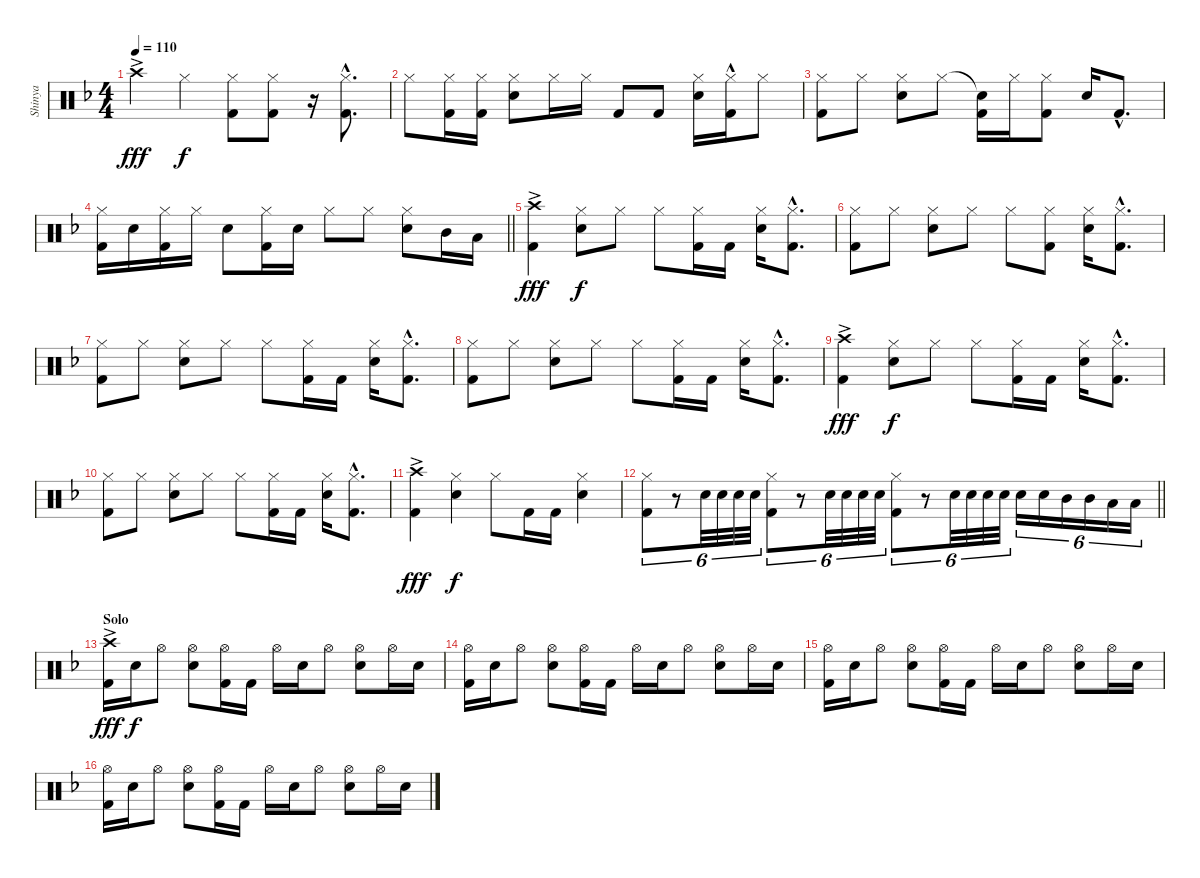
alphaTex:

\track ("Shinya" "Shinya") {instrument percussion}
\staff {score}
\articulation defaults
\ts (4 4)
\tempo 110
\clef neutral
\ks f "Crash high (hit)"{ac}.4{dy fff} "Hi-Hat (closed)".4{dy f}
("Hi-Hat (closed)" "Kick (hit) 2").8 ("Hi-Hat (closed)" "Kick (hit) 2").8 r.16 ("Hi-Hat (closed)"{hac} "Kick (hit) 2"{hac}).8{d} |
"Hi-Hat (closed)".8 ("Hi-Hat (closed)" "Kick (hit) 2").16 ("Hi-Hat (closed)" "Kick (hit) 2").16 ("Hi-Hat (closed)" "Snare (hit) 2").8 "Hi-Hat (closed)".16 "Hi-Hat (closed)".16 "Kick (hit) 2".8 "Kick (hit) 2".8 ("Hi-Hat (closed)" "Snare (hit) 2").16 ("Hi-Hat (closed)" "Kick (hit) 2"{hac}).16 "Hi-Hat (closed)".8 |
("Hi-Hat (closed)" "Kick (hit) 2").8 "Hi-Hat (closed)".8 ("Hi-Hat (closed)" "Snare (hit) 2").8 "Hi-Hat (closed)".8 ("Snare (hit)"{t} "Kick (hit) 2").16 "Hi-Hat (closed)".16 ("Hi-Hat (closed)" "Kick (hit) 2").8 "Snare (hit) 2".16 "Kick (hit) 2"{hac}.8{d} |
\barLineRight lightlight
("Hi-Hat (closed)" "Kick (hit) 2").16 "Snare (hit) 2".16 ("Hi-Hat (closed)" "Kick (hit) 2").16 "Hi-Hat (closed)".16 "Snare (hit) 2".8 ("Hi-Hat (closed)" "Kick (hit) 2").16 "Snare (hit) 2".16 "Hi-Hat (closed)".8 "Hi-Hat (closed)".8 ("Hi-Hat (closed)" "Snare (hit) 2").8 "Mid Tom (hit)".16 "Low Tom (hit)".16 |
("Crash high (hit)"{ac} "Kick (hit) 2").4{dy fff} ("Hi-Hat (closed)" "Snare (hit) 2").8{dy f} "Hi-Hat (closed)".8 "Hi-Hat (closed)".8 ("Hi-Hat (closed)" "Kick (hit) 2").16 "Kick (hit) 2".16 ("Hi-Hat (closed)" "Snare (hit) 2").16 ("Hi-Hat (closed)"{hac} "Kick (hit) 2"{hac}).8{d} |
("Hi-Hat (closed)" "Kick (hit) 2").8 "Hi-Hat (closed)".8 ("Hi-Hat (closed)" "Snare (hit) 2").8 "Hi-Hat (closed)".8 "Hi-Hat (closed)".8 ("Hi-Hat (closed)" "Kick (hit) 2").8 ("Hi-Hat (closed)" "Snare (hit) 2").16 ("Hi-Hat (closed)"{hac} "Kick (hit) 2"{hac}).8{d} |
("Hi-Hat (closed)" "Kick (hit) 2").8 "Hi-Hat (closed)".8 ("Hi-Hat (closed)" "Snare (hit) 2").8 "Hi-Hat (closed)".8 "Hi-Hat (closed)".8 ("Hi-Hat (closed)" "Kick (hit) 2").16 "Kick (hit) 2".16 ("Hi-Hat (closed)" "Snare (hit) 2").16 ("Hi-Hat (closed)"{hac} "Kick (hit) 2"{hac}).8{d} |
("Hi-Hat (closed)" "Kick (hit) 2").8 "Hi-Hat (closed)".8 ("Hi-Hat (closed)" "Snare (hit) 2").8 "Hi-Hat (closed)".8 "Hi-Hat (closed)".8 ("Hi-Hat (closed)" "Kick (hit) 2").16 "Kick (hit) 2".16 ("Hi-Hat (closed)" "Snare (hit) 2").16 ("Hi-Hat (closed)"{hac} "Kick (hit) 2"{hac}).8{d} |
("Crash high (hit)"{ac} "Kick (hit) 2").4{dy fff} ("Hi-Hat (closed)" "Snare (hit) 2").8{dy f} "Hi-Hat (closed)".8 "Hi-Hat (closed)".8 ("Hi-Hat (closed)" "Kick (hit) 2").16 "Kick (hit) 2".16 ("Hi-Hat (closed)" "Snare (hit) 2").16 ("Hi-Hat (closed)"{hac} "Kick (hit) 2"{hac}).8{d} |
("Hi-Hat (closed)" "Kick (hit) 2").8 "Hi-Hat (closed)".8 ("Hi-Hat (closed)" "Snare (hit) 2").8 "Hi-Hat (closed)".8 "Hi-Hat (closed)".8 ("Hi-Hat (closed)" "Kick (hit) 2").16 "Kick (hit) 2".16 ("Hi-Hat (closed)" "Snare (hit) 2").16 ("Hi-Hat (closed)"{hac} "Kick (hit) 2"{hac}).8{d} |
("Crash high (hit)"{ac} "Kick (hit) 2").4{dy fff} ("Hi-Hat (closed)" "Snare (hit) 2").4{dy f} "Hi-Hat (closed)".8 "Kick (hit) 2".16 "Kick (hit) 2".16 ("Hi-Hat (closed)" "Snare (hit) 2").4 |
\barLineRight lightlight
("Hi-Hat (closed)" "Kick (hit) 2").8{tu (6 4)} r.8{tu (6 4)} "Snare (hit) 2".32{tu (6 4)} "Snare (hit) 2".32{tu (6 4)} "Snare (hit) 2".32{tu (6 4)} "Snare (hit) 2".32{tu (6 4)} ("Hi-Hat (closed)" "Kick (hit) 2").8{tu (6 4)} r.8{tu (6 4)} "Snare (hit) 2".32{tu (6 4)} "Snare (hit) 2".32{tu (6 4)} "Snare (hit) 2".32{tu (6 4)} "Snare (hit) 2".32{tu (6 4)} ("Hi-Hat (closed)" "Kick (hit) 2").8{tu (6 4)} r.8{tu (6 4)} "Snare (hit) 2".32{tu (6 4)} "Snare (hit) 2".32{tu (6 4)} "Snare (hit) 2".32{tu (6 4)} "Snare (hit) 2".32{tu (6 4)} "Snare (hit) 2".16{tu (6 4)} "Snare (hit) 2".16{tu (6 4)} "Mid Tom (hit)".16{tu (6 4)} "Mid Tom (hit)".16{tu (6 4)} "Low Tom (hit)".16{tu (6 4)} "Low Tom (hit)".16{tu (6 4)} |
\section ("" "Solo")
("Crash high (hit)"{ac} "Kick (hit) 2").16{dy fff} "Snare (hit) 2".16{dy f} "Hi-Hat (open)".8 ("Hi-Hat (open)" "Snare (hit) 2").8 ("Hi-Hat (open)" "Kick (hit) 2").16 "Kick (hit) 2".16 "Hi-Hat (open)".16 "Snare (hit) 2".16 "Hi-Hat (open)".8 ("Hi-Hat (open)" "Snare (hit) 2").8 "Hi-Hat (open)".16 "Snare (hit) 2".16 |
("Hi-Hat (open)" "Kick (hit) 2").16 "Snare (hit) 2".16 "Hi-Hat (open)".8 ("Hi-Hat (open)" "Snare (hit) 2").8 ("Hi-Hat (open)" "Kick (hit) 2").16 "Kick (hit) 2".16 "Hi-Hat (open)".16 "Snare (hit) 2".16 "Hi-Hat (open)".8 ("Hi-Hat (open)" "Snare (hit) 2").8 "Hi-Hat (open)".16 "Snare (hit) 2".16 |
("Hi-Hat (open)" "Kick (hit) 2").16 "Snare (hit) 2".16 "Hi-Hat (open)".8 ("Hi-Hat (open)" "Snare (hit) 2").8 ("Hi-Hat (open)" "Kick (hit) 2").16 "Kick (hit) 2".16 "Hi-Hat (open)".16 "Snare (hit) 2".16 "Hi-Hat (open)".8 ("Hi-Hat (open)" "Snare (hit) 2").8 "Hi-Hat (open)".16 "Snare (hit) 2".16 |
("Hi-Hat (open)" "Kick (hit) 2").16 "Snare (hit) 2".16 "Hi-Hat (open)".8 ("Hi-Hat (open)" "Snare (hit) 2").8 ("Hi-Hat (open)" "Kick (hit) 2").16 "Kick (hit) 2".16 "Hi-Hat (open)".16 "Snare (hit) 2".16 "Hi-Hat (open)".8 ("Hi-Hat (open)" "Snare (hit) 2").8 "Hi-Hat (open)".16 "Snare (hit) 2".16
